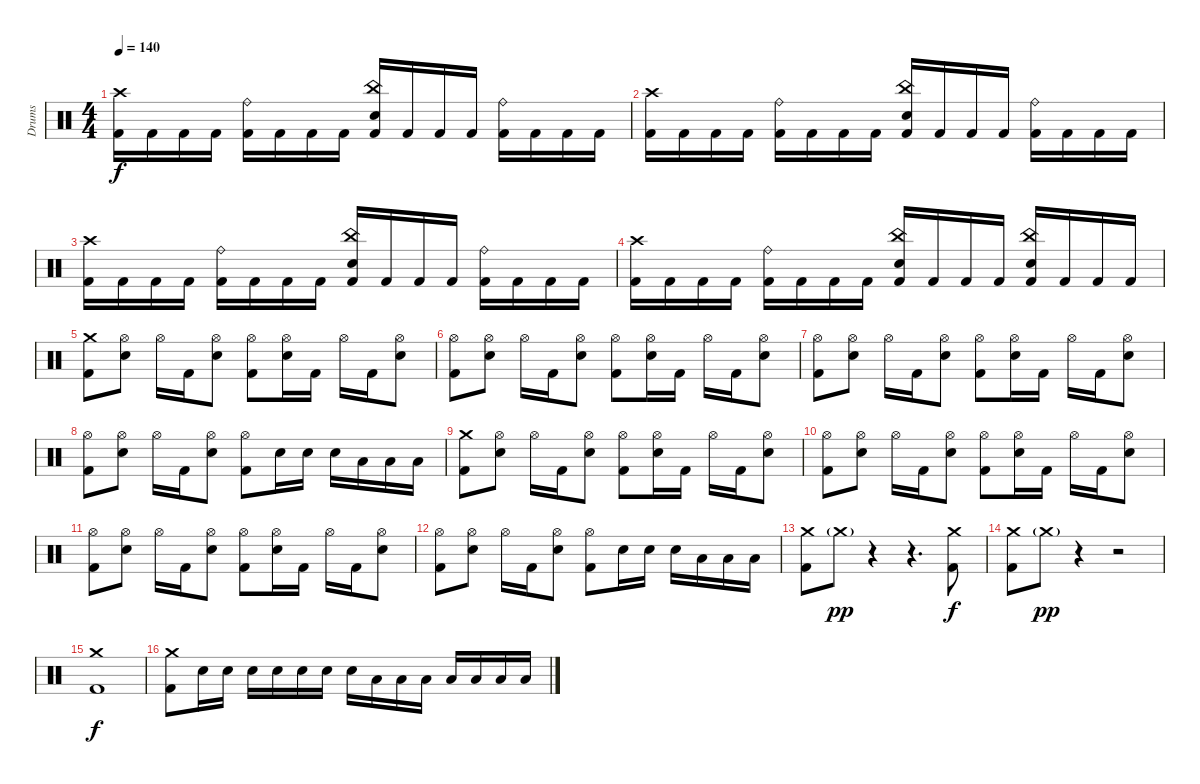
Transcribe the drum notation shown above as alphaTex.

\track ("Drums" "Drums") {instrument percussion}
\staff {score}
\articulation defaults
\ts (4 4)
\tempo 140
\clef neutral
\ks c
("Crash high (hit)" "Kick (hit) 2").16{dy f} "Kick (hit) 2".16 "Kick (hit) 2".16 "Kick (hit) 2".16 ("Ride (bell)" "Kick (hit) 2").16 "Kick (hit) 2".16 "Kick (hit) 2".16 "Kick (hit) 2".16 ("China (hit)" "Electric Snare (hit)" "Kick (hit) 2").16 "Kick (hit) 2".16 "Kick (hit) 2".16 "Kick (hit) 2".16 ("Ride (bell)" "Kick (hit) 2").16 "Kick (hit) 2".16 "Kick (hit) 2".16 "Kick (hit) 2".16 |
("Crash high (hit)" "Kick (hit) 2").16 "Kick (hit) 2".16 "Kick (hit) 2".16 "Kick (hit) 2".16 ("Ride (bell)" "Kick (hit) 2").16 "Kick (hit) 2".16 "Kick (hit) 2".16 "Kick (hit) 2".16 ("China (hit)" "Electric Snare (hit)" "Kick (hit) 2").16 "Kick (hit) 2".16 "Kick (hit) 2".16 "Kick (hit) 2".16 ("Ride (bell)" "Kick (hit) 2").16 "Kick (hit) 2".16 "Kick (hit) 2".16 "Kick (hit) 2".16 |
("Crash high (hit)" "Kick (hit) 2").16 "Kick (hit) 2".16 "Kick (hit) 2".16 "Kick (hit) 2".16 ("Ride (bell)" "Kick (hit) 2").16 "Kick (hit) 2".16 "Kick (hit) 2".16 "Kick (hit) 2".16 ("China (hit)" "Electric Snare (hit)" "Kick (hit) 2").16 "Kick (hit) 2".16 "Kick (hit) 2".16 "Kick (hit) 2".16 ("Ride (bell)" "Kick (hit) 2").16 "Kick (hit) 2".16 "Kick (hit) 2".16 "Kick (hit) 2".16 |
("Crash high (hit)" "Kick (hit) 2").16 "Kick (hit) 2".16 "Kick (hit) 2".16 "Kick (hit) 2".16 ("Ride (bell)" "Kick (hit) 2").16 "Kick (hit) 2".16 "Kick (hit) 2".16 "Kick (hit) 2".16 ("China (hit)" "Electric Snare (hit)" "Kick (hit) 2").16 "Kick (hit) 2".16 "Kick (hit) 2".16 "Kick (hit) 2".16 ("China (hit)" "Electric Snare (hit)" "Kick (hit) 2").16 "Kick (hit) 2".16 "Kick (hit) 2".16 "Kick (hit) 2".16 |
("Crash medium (hit)" "Kick (hit) 2").8 ("Hi-Hat (open)" "Electric Snare (hit)").8 "Hi-Hat (open)".16 "Kick (hit) 2".16 ("Hi-Hat (open)" "Electric Snare (hit)").8 ("Hi-Hat (open)" "Kick (hit) 2").8 ("Hi-Hat (open)" "Electric Snare (hit)").16 "Kick (hit) 2".16 "Hi-Hat (open)".16 "Kick (hit) 2".16 ("Hi-Hat (open)" "Electric Snare (hit)").8 |
("Hi-Hat (open)" "Kick (hit) 2").8 ("Hi-Hat (open)" "Electric Snare (hit)").8 "Hi-Hat (open)".16 "Kick (hit) 2".16 ("Hi-Hat (open)" "Electric Snare (hit)").8 ("Hi-Hat (open)" "Kick (hit) 2").8 ("Hi-Hat (open)" "Electric Snare (hit)").16 "Kick (hit) 2".16 "Hi-Hat (open)".16 "Kick (hit) 2".16 ("Hi-Hat (open)" "Electric Snare (hit)").8 |
("Hi-Hat (open)" "Kick (hit) 2").8 ("Hi-Hat (open)" "Electric Snare (hit)").8 "Hi-Hat (open)".16 "Kick (hit) 2".16 ("Hi-Hat (open)" "Electric Snare (hit)").8 ("Hi-Hat (open)" "Kick (hit) 2").8 ("Hi-Hat (open)" "Electric Snare (hit)").16 "Kick (hit) 2".16 "Hi-Hat (open)".16 "Kick (hit) 2".16 ("Hi-Hat (open)" "Electric Snare (hit)").8 |
("Hi-Hat (open)" "Kick (hit) 2").8 ("Hi-Hat (open)" "Electric Snare (hit)").8 "Hi-Hat (open)".16 "Kick (hit) 2".16 ("Hi-Hat (open)" "Electric Snare (hit)").8 ("Hi-Hat (open)" "Kick (hit) 2").8 "Electric Snare (hit)".16 "Electric Snare (hit)".16 "Electric Snare (hit)".16 "Low Tom (hit)".16 "Low Floor Tom (hit)".16 "Low Floor Tom (hit)".16 |
("Crash medium (hit)" "Kick (hit) 2").8 ("Hi-Hat (open)" "Electric Snare (hit)").8 "Hi-Hat (open)".16 "Kick (hit) 2".16 ("Hi-Hat (open)" "Electric Snare (hit)").8 ("Hi-Hat (open)" "Kick (hit) 2").8 ("Hi-Hat (open)" "Electric Snare (hit)").16 "Kick (hit) 2".16 "Hi-Hat (open)".16 "Kick (hit) 2".16 ("Hi-Hat (open)" "Electric Snare (hit)").8 |
("Hi-Hat (open)" "Kick (hit) 2").8 ("Hi-Hat (open)" "Electric Snare (hit)").8 "Hi-Hat (open)".16 "Kick (hit) 2".16 ("Hi-Hat (open)" "Electric Snare (hit)").8 ("Hi-Hat (open)" "Kick (hit) 2").8 ("Hi-Hat (open)" "Electric Snare (hit)").16 "Kick (hit) 2".16 "Hi-Hat (open)".16 "Kick (hit) 2".16 ("Hi-Hat (open)" "Electric Snare (hit)").8 |
("Hi-Hat (open)" "Kick (hit) 2").8 ("Hi-Hat (open)" "Electric Snare (hit)").8 "Hi-Hat (open)".16 "Kick (hit) 2".16 ("Hi-Hat (open)" "Electric Snare (hit)").8 ("Hi-Hat (open)" "Kick (hit) 2").8 ("Hi-Hat (open)" "Electric Snare (hit)").16 "Kick (hit) 2".16 "Hi-Hat (open)".16 "Kick (hit) 2".16 ("Hi-Hat (open)" "Electric Snare (hit)").8 |
("Hi-Hat (open)" "Kick (hit) 2").8 ("Hi-Hat (open)" "Electric Snare (hit)").8 "Hi-Hat (open)".16 "Kick (hit) 2".16 ("Hi-Hat (open)" "Electric Snare (hit)").8 ("Hi-Hat (open)" "Kick (hit) 2").8 "Electric Snare (hit)".16 "Electric Snare (hit)".16 "Electric Snare (hit)".16 "Low Tom (hit)".16 "Low Floor Tom (hit)".16 "Low Floor Tom (hit)".16 |
("Crash medium (hit)" "Kick (hit) 2").8 "Crash medium (hit)"{g}.8{dy pp} r.4 r.4{d} ("Crash medium (hit)" "Kick (hit) 2").8{dy f} |
("Crash medium (hit)" "Kick (hit) 2").8 "Crash medium (hit)"{g}.8{dy pp} r.4 r.2 |
("Crash medium (hit)" "Kick (hit) 2").1{dy f} |
("Crash medium (hit)" "Kick (hit) 2").8 "Electric Snare (hit)".16 "Electric Snare (hit)".16 "Electric Snare (hit)".16 "Electric Snare (hit)".16 "Electric Snare (hit)".16 "Electric Snare (hit)".16 "Electric Snare (hit)".16 "Low Tom (hit)".16 "Low Tom (hit)".16 "Low Tom (hit)".16 "Low Floor Tom (hit)".16 "Low Floor Tom (hit)".16 "Low Floor Tom (hit)".16 "Low Floor Tom (hit)".16
